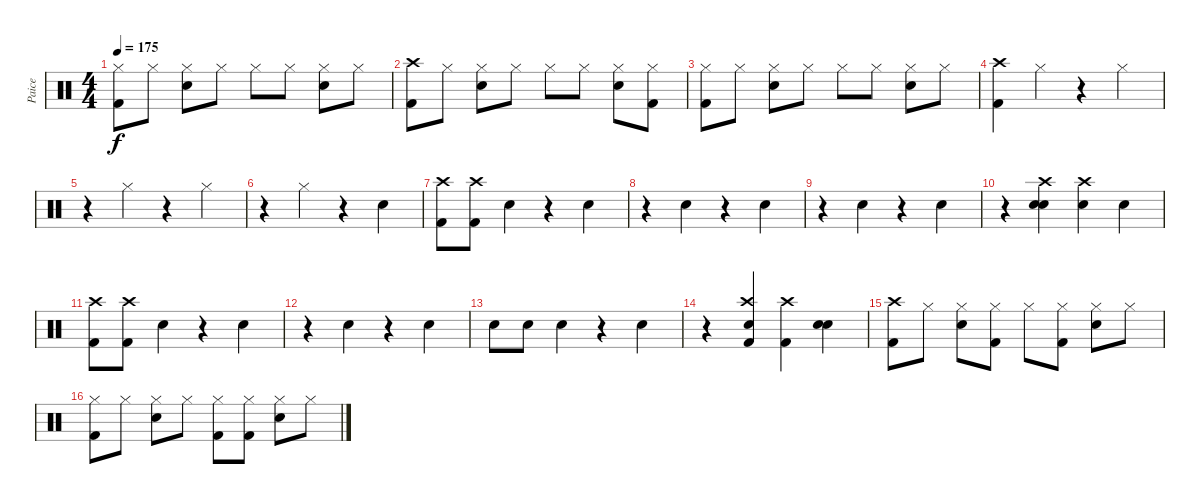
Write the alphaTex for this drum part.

\track ("Paice" "Paice") {instrument percussion}
\staff {score}
\articulation defaults
\ts (4 4)
\tempo 175
\clef neutral
\ks c
("Hi-Hat (closed)" "Kick (hit) 2").8{dy f} "Hi-Hat (closed)".8 ("Hi-Hat (closed)" "Electric Snare (hit)").8 "Hi-Hat (closed)".8 "Hi-Hat (closed)".8 "Hi-Hat (closed)".8 ("Hi-Hat (closed)" "Electric Snare (hit)").8 "Hi-Hat (closed)".8 |
("Crash high (hit)" "Kick (hit) 2").8 "Hi-Hat (closed)".8 ("Hi-Hat (closed)" "Electric Snare (hit)").8 "Hi-Hat (closed)".8 "Hi-Hat (closed)".8 "Hi-Hat (closed)".8 ("Hi-Hat (closed)" "Electric Snare (hit)").8 ("Hi-Hat (closed)" "Kick (hit) 2").8 |
("Hi-Hat (closed)" "Kick (hit) 2").8 "Hi-Hat (closed)".8 ("Hi-Hat (closed)" "Electric Snare (hit)").8 "Hi-Hat (closed)".8 "Hi-Hat (closed)".8 "Hi-Hat (closed)".8 ("Hi-Hat (closed)" "Electric Snare (hit)").8 "Hi-Hat (closed)".8 |
("Crash high (hit)" "Kick (hit) 2").4 "Hi-Hat (closed)".4 r.4 "Hi-Hat (closed)".4 |
r.4 "Hi-Hat (closed)".4 r.4 "Hi-Hat (closed)".4 |
r.4 "Hi-Hat (closed)".4 r.4 "Electric Snare (hit)".4 |
("Crash high (hit)" "Kick (hit) 2").8 ("Crash high (hit)" "Kick (hit) 2").8 "Hand Clap (hit)".4 r.4 "Hand Clap (hit)".4 |
r.4 "Hand Clap (hit)".4 r.4 "Hand Clap (hit)".4 |
r.4 "Hand Clap (hit)".4 r.4 "Hand Clap (hit)".4 |
r.4 ("Crash high (hit)" "Electric Snare (hit)" "Hand Clap (hit)").4 ("Crash high (hit)" "Electric Snare (hit)").4 "Hand Clap (hit)".4 |
("Crash high (hit)" "Kick (hit) 2").8 ("Crash high (hit)" "Kick (hit) 2").8 "Hand Clap (hit)".4 r.4 "Hand Clap (hit)".4 |
r.4 "Hand Clap (hit)".4 r.4 "Hand Clap (hit)".4 |
"Electric Snare (hit)".8 "Electric Snare (hit)".8 "Hand Clap (hit)".4 r.4 "Hand Clap (hit)".4 |
r.4 ("Crash high (hit)" "Hand Clap (hit)" "Kick (hit) 2").4 ("Crash high (hit)" "Kick (hit) 2").4 ("Electric Snare (hit)" "Hand Clap (hit)").4 |
("Crash high (hit)" "Kick (hit) 2").8 "Hi-Hat (closed)".8 ("Hi-Hat (closed)" "Electric Snare (hit)").8 ("Hi-Hat (closed)" "Kick (hit) 2").8 "Hi-Hat (closed)".8 ("Hi-Hat (closed)" "Kick (hit) 2").8 ("Hi-Hat (closed)" "Electric Snare (hit)").8 "Hi-Hat (closed)".8 |
("Hi-Hat (closed)" "Kick (hit) 2").8 "Hi-Hat (closed)".8 ("Hi-Hat (closed)" "Electric Snare (hit)").8 "Hi-Hat (closed)".8 ("Hi-Hat (closed)" "Kick (hit) 2").8 ("Hi-Hat (closed)" "Kick (hit) 2").8 ("Hi-Hat (closed)" "Electric Snare (hit)").8 "Hi-Hat (closed)".8
